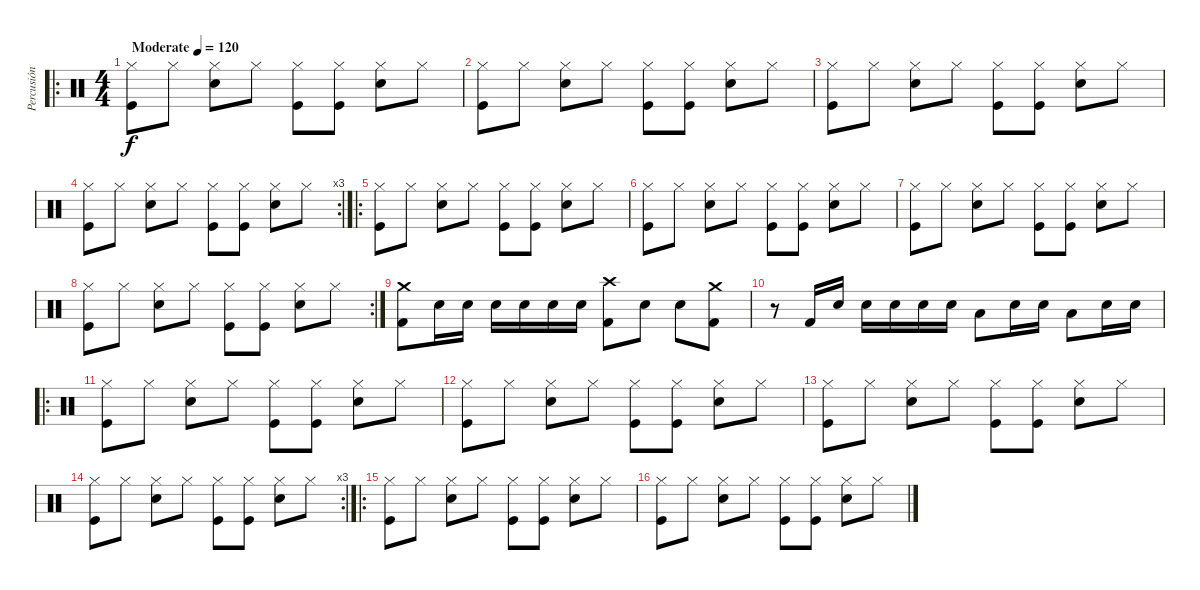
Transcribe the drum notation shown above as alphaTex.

\track ("Percusión" "Percusión") {instrument percussion}
\staff {score}
\articulation defaults
\ro
\ts (4 4)
\tempo (120 "Moderate")
\clef neutral
\ks c
("Hi-Hat (closed)" "Kick (hit)").8{dy f} "Hi-Hat (closed)".8 ("Hi-Hat (closed)" "Electric Snare (hit)").8 "Hi-Hat (closed)".8 ("Hi-Hat (closed)" "Kick (hit)").8 ("Hi-Hat (closed)" "Kick (hit)").8 ("Hi-Hat (closed)" "Electric Snare (hit)").8 "Hi-Hat (closed)".8 |
("Hi-Hat (closed)" "Kick (hit)").8 "Hi-Hat (closed)".8 ("Hi-Hat (closed)" "Electric Snare (hit)").8 "Hi-Hat (closed)".8 ("Hi-Hat (closed)" "Kick (hit)").8 ("Hi-Hat (closed)" "Kick (hit)").8 ("Hi-Hat (closed)" "Electric Snare (hit)").8 "Hi-Hat (closed)".8 |
("Hi-Hat (closed)" "Kick (hit)").8 "Hi-Hat (closed)".8 ("Hi-Hat (closed)" "Electric Snare (hit)").8 "Hi-Hat (closed)".8 ("Hi-Hat (closed)" "Kick (hit)").8 ("Hi-Hat (closed)" "Kick (hit)").8 ("Hi-Hat (closed)" "Electric Snare (hit)").8 "Hi-Hat (closed)".8 |
\rc 3
("Hi-Hat (closed)" "Kick (hit)").8 "Hi-Hat (closed)".8 ("Hi-Hat (closed)" "Electric Snare (hit)").8 "Hi-Hat (closed)".8 ("Hi-Hat (closed)" "Kick (hit)").8 ("Hi-Hat (closed)" "Kick (hit)").8 ("Hi-Hat (closed)" "Electric Snare (hit)").8 "Hi-Hat (closed)".8 |
\ro
("Hi-Hat (closed)" "Kick (hit)").8 "Hi-Hat (closed)".8 ("Hi-Hat (closed)" "Electric Snare (hit)").8 "Hi-Hat (closed)".8 ("Hi-Hat (closed)" "Kick (hit)").8 ("Hi-Hat (closed)" "Kick (hit)").8 ("Hi-Hat (closed)" "Electric Snare (hit)").8 "Hi-Hat (closed)".8 |
("Hi-Hat (closed)" "Kick (hit)").8 "Hi-Hat (closed)".8 ("Hi-Hat (closed)" "Electric Snare (hit)").8 "Hi-Hat (closed)".8 ("Hi-Hat (closed)" "Kick (hit)").8 ("Hi-Hat (closed)" "Kick (hit)").8 ("Hi-Hat (closed)" "Electric Snare (hit)").8 "Hi-Hat (closed)".8 |
("Hi-Hat (closed)" "Kick (hit)").8 "Hi-Hat (closed)".8 ("Hi-Hat (closed)" "Electric Snare (hit)").8 "Hi-Hat (closed)".8 ("Hi-Hat (closed)" "Kick (hit)").8 ("Hi-Hat (closed)" "Kick (hit)").8 ("Hi-Hat (closed)" "Electric Snare (hit)").8 "Hi-Hat (closed)".8 |
\rc 2
("Hi-Hat (closed)" "Kick (hit)").8 "Hi-Hat (closed)".8 ("Hi-Hat (closed)" "Electric Snare (hit)").8 "Hi-Hat (closed)".8 ("Hi-Hat (closed)" "Kick (hit)").8 ("Hi-Hat (closed)" "Kick (hit)").8 ("Hi-Hat (closed)" "Electric Snare (hit)").8 "Hi-Hat (closed)".8 |
("Kick (hit) 2" "Crash medium (hit)").8 "Snare (hit) 2".16 "Snare (hit) 2".16 "Snare (hit) 2".16 "Snare (hit) 2".16 "Snare (hit) 2".16 "Snare (hit) 2".16 ("Kick (hit) 2" "Crash high (hit)").8 "Snare (hit) 2".8 "Snare (hit) 2".8 ("Kick (hit) 2" "Crash medium (hit)").8 |
r.8 "Kick (hit) 2".16 "Snare (hit) 2".16 "Snare (hit) 2".16 "Snare (hit) 2".16 "Snare (hit) 2".16 "Snare (hit) 2".16 "Low Tom (hit)".8 "Snare (hit) 2".16 "Snare (hit) 2".16 "Low Tom (hit)".8 "Snare (hit) 2".16 "Snare (hit) 2".16 |
\ro
("Hi-Hat (closed)" "Kick (hit)").8 "Hi-Hat (closed)".8 ("Hi-Hat (closed)" "Electric Snare (hit)").8 "Hi-Hat (closed)".8 ("Hi-Hat (closed)" "Kick (hit)").8 ("Hi-Hat (closed)" "Kick (hit)").8 ("Hi-Hat (closed)" "Electric Snare (hit)").8 "Hi-Hat (closed)".8 |
("Hi-Hat (closed)" "Kick (hit)").8 "Hi-Hat (closed)".8 ("Hi-Hat (closed)" "Electric Snare (hit)").8 "Hi-Hat (closed)".8 ("Hi-Hat (closed)" "Kick (hit)").8 ("Hi-Hat (closed)" "Kick (hit)").8 ("Hi-Hat (closed)" "Electric Snare (hit)").8 "Hi-Hat (closed)".8 |
("Hi-Hat (closed)" "Kick (hit)").8 "Hi-Hat (closed)".8 ("Hi-Hat (closed)" "Electric Snare (hit)").8 "Hi-Hat (closed)".8 ("Hi-Hat (closed)" "Kick (hit)").8 ("Hi-Hat (closed)" "Kick (hit)").8 ("Hi-Hat (closed)" "Electric Snare (hit)").8 "Hi-Hat (closed)".8 |
\rc 3
("Hi-Hat (closed)" "Kick (hit)").8 "Hi-Hat (closed)".8 ("Hi-Hat (closed)" "Electric Snare (hit)").8 "Hi-Hat (closed)".8 ("Hi-Hat (closed)" "Kick (hit)").8 ("Hi-Hat (closed)" "Kick (hit)").8 ("Hi-Hat (closed)" "Electric Snare (hit)").8 "Hi-Hat (closed)".8 |
\ro
("Hi-Hat (closed)" "Kick (hit)").8 "Hi-Hat (closed)".8 ("Hi-Hat (closed)" "Electric Snare (hit)").8 "Hi-Hat (closed)".8 ("Hi-Hat (closed)" "Kick (hit)").8 ("Hi-Hat (closed)" "Kick (hit)").8 ("Hi-Hat (closed)" "Electric Snare (hit)").8 "Hi-Hat (closed)".8 |
("Hi-Hat (closed)" "Kick (hit)").8 "Hi-Hat (closed)".8 ("Hi-Hat (closed)" "Electric Snare (hit)").8 "Hi-Hat (closed)".8 ("Hi-Hat (closed)" "Kick (hit)").8 ("Hi-Hat (closed)" "Kick (hit)").8 ("Hi-Hat (closed)" "Electric Snare (hit)").8 "Hi-Hat (closed)".8
